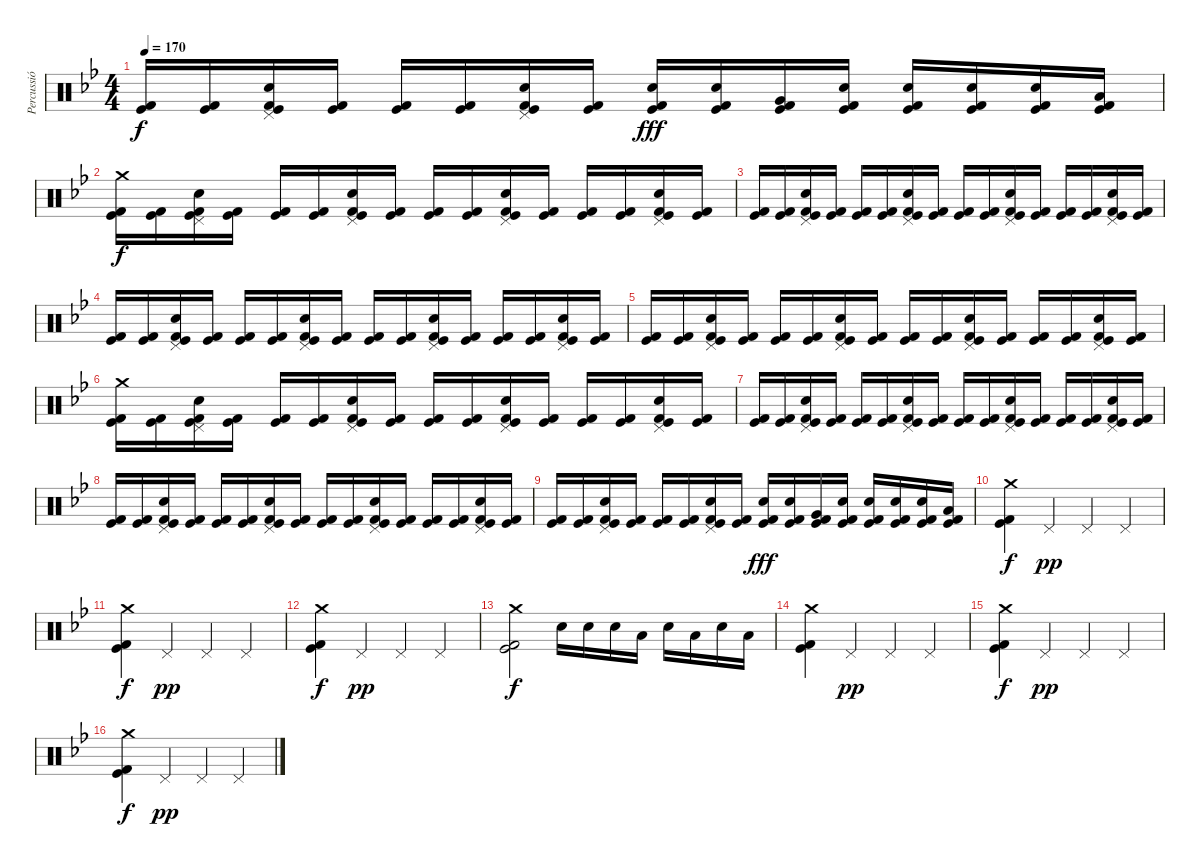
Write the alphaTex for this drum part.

\track ("Percussió" "Percussió") {instrument percussion}
\staff {score}
\articulation defaults
\ts (4 4)
\tempo 170
\clef neutral
\ks gminor
("Kick (hit)" "Kick (hit) 2").16{dy f} ("Kick (hit)" "Kick (hit) 2").16 ("Pedal Hi-Hat (hit)" "Electric Snare (hit)" "Kick (hit)" "Kick (hit) 2").16 ("Kick (hit)" "Kick (hit) 2").16 ("Kick (hit)" "Kick (hit) 2").16 ("Kick (hit)" "Kick (hit) 2").16 ("Pedal Hi-Hat (hit)" "Electric Snare (hit)" "Kick (hit)" "Kick (hit) 2").16 ("Kick (hit)" "Kick (hit) 2").16 ("Electric Snare (hit)" "Kick (hit)" "Kick (hit) 2").16{dy fff} ("Electric Snare (hit)" "Kick (hit)" "Kick (hit) 2").16 ("Very Low Tom (hit)" "Kick (hit)" "Kick (hit) 2").16 ("Electric Snare (hit)" "Kick (hit)" "Kick (hit) 2").16 ("Electric Snare (hit)" "Kick (hit)" "Kick (hit) 2").16 ("Electric Snare (hit)" "Kick (hit)" "Kick (hit) 2").16 ("Electric Snare (hit)" "Kick (hit)" "Kick (hit) 2").16 ("Low Floor Tom (hit)" "Kick (hit)" "Kick (hit) 2").16 |
("Crash medium (hit)" "Kick (hit)" "Kick (hit) 2").16{dy f} ("Kick (hit)" "Kick (hit) 2").16 ("Pedal Hi-Hat (hit)" "Electric Snare (hit)" "Kick (hit)" "Kick (hit) 2").16 ("Kick (hit)" "Kick (hit) 2").16 ("Kick (hit)" "Kick (hit) 2").16 ("Kick (hit)" "Kick (hit) 2").16 ("Pedal Hi-Hat (hit)" "Electric Snare (hit)" "Kick (hit)" "Kick (hit) 2").16 ("Kick (hit)" "Kick (hit) 2").16 ("Kick (hit)" "Kick (hit) 2").16 ("Kick (hit)" "Kick (hit) 2").16 ("Pedal Hi-Hat (hit)" "Electric Snare (hit)" "Kick (hit)" "Kick (hit) 2").16 ("Kick (hit)" "Kick (hit) 2").16 ("Kick (hit)" "Kick (hit) 2").16 ("Kick (hit)" "Kick (hit) 2").16 ("Pedal Hi-Hat (hit)" "Electric Snare (hit)" "Kick (hit)" "Kick (hit) 2").16 ("Kick (hit)" "Kick (hit) 2").16 |
("Kick (hit)" "Kick (hit) 2").16 ("Kick (hit)" "Kick (hit) 2").16 ("Pedal Hi-Hat (hit)" "Electric Snare (hit)" "Kick (hit)" "Kick (hit) 2").16 ("Kick (hit)" "Kick (hit) 2").16 ("Kick (hit)" "Kick (hit) 2").16 ("Kick (hit)" "Kick (hit) 2").16 ("Pedal Hi-Hat (hit)" "Electric Snare (hit)" "Kick (hit)" "Kick (hit) 2").16 ("Kick (hit)" "Kick (hit) 2").16 ("Kick (hit)" "Kick (hit) 2").16 ("Kick (hit)" "Kick (hit) 2").16 ("Pedal Hi-Hat (hit)" "Electric Snare (hit)" "Kick (hit)" "Kick (hit) 2").16 ("Kick (hit)" "Kick (hit) 2").16 ("Kick (hit)" "Kick (hit) 2").16 ("Kick (hit)" "Kick (hit) 2").16 ("Pedal Hi-Hat (hit)" "Electric Snare (hit)" "Kick (hit)" "Kick (hit) 2").16 ("Kick (hit)" "Kick (hit) 2").16 |
("Kick (hit)" "Kick (hit) 2").16 ("Kick (hit)" "Kick (hit) 2").16 ("Pedal Hi-Hat (hit)" "Electric Snare (hit)" "Kick (hit)" "Kick (hit) 2").16 ("Kick (hit)" "Kick (hit) 2").16 ("Kick (hit)" "Kick (hit) 2").16 ("Kick (hit)" "Kick (hit) 2").16 ("Pedal Hi-Hat (hit)" "Electric Snare (hit)" "Kick (hit)" "Kick (hit) 2").16 ("Kick (hit)" "Kick (hit) 2").16 ("Kick (hit)" "Kick (hit) 2").16 ("Kick (hit)" "Kick (hit) 2").16 ("Pedal Hi-Hat (hit)" "Electric Snare (hit)" "Kick (hit)" "Kick (hit) 2").16 ("Kick (hit)" "Kick (hit) 2").16 ("Kick (hit)" "Kick (hit) 2").16 ("Kick (hit)" "Kick (hit) 2").16 ("Pedal Hi-Hat (hit)" "Electric Snare (hit)" "Kick (hit)" "Kick (hit) 2").16 ("Kick (hit)" "Kick (hit) 2").16 |
("Kick (hit)" "Kick (hit) 2").16 ("Kick (hit)" "Kick (hit) 2").16 ("Pedal Hi-Hat (hit)" "Electric Snare (hit)" "Kick (hit)" "Kick (hit) 2").16 ("Kick (hit)" "Kick (hit) 2").16 ("Kick (hit)" "Kick (hit) 2").16 ("Kick (hit)" "Kick (hit) 2").16 ("Pedal Hi-Hat (hit)" "Electric Snare (hit)" "Kick (hit)" "Kick (hit) 2").16 ("Kick (hit)" "Kick (hit) 2").16 ("Kick (hit)" "Kick (hit) 2").16 ("Kick (hit)" "Kick (hit) 2").16 ("Pedal Hi-Hat (hit)" "Electric Snare (hit)" "Kick (hit)" "Kick (hit) 2").16 ("Kick (hit)" "Kick (hit) 2").16 ("Kick (hit)" "Kick (hit) 2").16 ("Kick (hit)" "Kick (hit) 2").16 ("Pedal Hi-Hat (hit)" "Electric Snare (hit)" "Kick (hit)" "Kick (hit) 2").16 ("Kick (hit)" "Kick (hit) 2").16 |
("Crash medium (hit)" "Kick (hit)" "Kick (hit) 2").16 ("Kick (hit)" "Kick (hit) 2").16 ("Pedal Hi-Hat (hit)" "Electric Snare (hit)" "Kick (hit)" "Kick (hit) 2").16 ("Kick (hit)" "Kick (hit) 2").16 ("Kick (hit)" "Kick (hit) 2").16 ("Kick (hit)" "Kick (hit) 2").16 ("Pedal Hi-Hat (hit)" "Electric Snare (hit)" "Kick (hit)" "Kick (hit) 2").16 ("Kick (hit)" "Kick (hit) 2").16 ("Kick (hit)" "Kick (hit) 2").16 ("Kick (hit)" "Kick (hit) 2").16 ("Pedal Hi-Hat (hit)" "Electric Snare (hit)" "Kick (hit)" "Kick (hit) 2").16 ("Kick (hit)" "Kick (hit) 2").16 ("Kick (hit)" "Kick (hit) 2").16 ("Kick (hit)" "Kick (hit) 2").16 ("Pedal Hi-Hat (hit)" "Electric Snare (hit)" "Kick (hit)" "Kick (hit) 2").16 ("Kick (hit)" "Kick (hit) 2").16 |
("Kick (hit)" "Kick (hit) 2").16 ("Kick (hit)" "Kick (hit) 2").16 ("Pedal Hi-Hat (hit)" "Electric Snare (hit)" "Kick (hit)" "Kick (hit) 2").16 ("Kick (hit)" "Kick (hit) 2").16 ("Kick (hit)" "Kick (hit) 2").16 ("Kick (hit)" "Kick (hit) 2").16 ("Pedal Hi-Hat (hit)" "Electric Snare (hit)" "Kick (hit)" "Kick (hit) 2").16 ("Kick (hit)" "Kick (hit) 2").16 ("Kick (hit)" "Kick (hit) 2").16 ("Kick (hit)" "Kick (hit) 2").16 ("Pedal Hi-Hat (hit)" "Electric Snare (hit)" "Kick (hit)" "Kick (hit) 2").16 ("Kick (hit)" "Kick (hit) 2").16 ("Kick (hit)" "Kick (hit) 2").16 ("Kick (hit)" "Kick (hit) 2").16 ("Pedal Hi-Hat (hit)" "Electric Snare (hit)" "Kick (hit)" "Kick (hit) 2").16 ("Kick (hit)" "Kick (hit) 2").16 |
("Kick (hit)" "Kick (hit) 2").16 ("Kick (hit)" "Kick (hit) 2").16 ("Pedal Hi-Hat (hit)" "Electric Snare (hit)" "Kick (hit)" "Kick (hit) 2").16 ("Kick (hit)" "Kick (hit) 2").16 ("Kick (hit)" "Kick (hit) 2").16 ("Kick (hit)" "Kick (hit) 2").16 ("Pedal Hi-Hat (hit)" "Electric Snare (hit)" "Kick (hit)" "Kick (hit) 2").16 ("Kick (hit)" "Kick (hit) 2").16 ("Kick (hit)" "Kick (hit) 2").16 ("Kick (hit)" "Kick (hit) 2").16 ("Pedal Hi-Hat (hit)" "Electric Snare (hit)" "Kick (hit)" "Kick (hit) 2").16 ("Kick (hit)" "Kick (hit) 2").16 ("Kick (hit)" "Kick (hit) 2").16 ("Kick (hit)" "Kick (hit) 2").16 ("Pedal Hi-Hat (hit)" "Electric Snare (hit)" "Kick (hit)" "Kick (hit) 2").16 ("Kick (hit)" "Kick (hit) 2").16 |
("Kick (hit)" "Kick (hit) 2").16 ("Kick (hit)" "Kick (hit) 2").16 ("Pedal Hi-Hat (hit)" "Electric Snare (hit)" "Kick (hit)" "Kick (hit) 2").16 ("Kick (hit)" "Kick (hit) 2").16 ("Kick (hit)" "Kick (hit) 2").16 ("Kick (hit)" "Kick (hit) 2").16 ("Pedal Hi-Hat (hit)" "Electric Snare (hit)" "Kick (hit)" "Kick (hit) 2").16 ("Kick (hit)" "Kick (hit) 2").16 ("Electric Snare (hit)" "Kick (hit)" "Kick (hit) 2").16{dy fff} ("Electric Snare (hit)" "Kick (hit)" "Kick (hit) 2").16 ("Very Low Tom (hit)" "Kick (hit)" "Kick (hit) 2").16 ("Electric Snare (hit)" "Kick (hit)" "Kick (hit) 2").16 ("Electric Snare (hit)" "Kick (hit)" "Kick (hit) 2").16 ("Electric Snare (hit)" "Kick (hit)" "Kick (hit) 2").16 ("Electric Snare (hit)" "Kick (hit)" "Kick (hit) 2").16 ("Low Floor Tom (hit)" "Kick (hit)" "Kick (hit) 2").16 |
("Crash medium (hit)" "Kick (hit)" "Kick (hit) 2").4{dy f} "Pedal Hi-Hat (hit)".4{dy pp} "Pedal Hi-Hat (hit)".4 "Pedal Hi-Hat (hit)".4 |
("Crash medium (hit)" "Kick (hit)" "Kick (hit) 2").4{dy f} "Pedal Hi-Hat (hit)".4{dy pp} "Pedal Hi-Hat (hit)".4 "Pedal Hi-Hat (hit)".4 |
("Crash medium (hit)" "Kick (hit)" "Kick (hit) 2").4{dy f} "Pedal Hi-Hat (hit)".4{dy pp} "Pedal Hi-Hat (hit)".4 "Pedal Hi-Hat (hit)".4 |
("Crash medium (hit)" "Kick (hit)" "Kick (hit) 2").2{dy f} "Electric Snare (hit)".16 "Electric Snare (hit)".16 "Electric Snare (hit)".16 "Low Tom (hit)".16 "Electric Snare (hit)".16 "Low Tom (hit)".16 "Electric Snare (hit)".16 "Low Floor Tom (hit)".16 |
("Crash medium (hit)" "Kick (hit)" "Kick (hit) 2").4 "Pedal Hi-Hat (hit)".4{dy pp} "Pedal Hi-Hat (hit)".4 "Pedal Hi-Hat (hit)".4 |
("Crash medium (hit)" "Kick (hit)" "Kick (hit) 2").4{dy f} "Pedal Hi-Hat (hit)".4{dy pp} "Pedal Hi-Hat (hit)".4 "Pedal Hi-Hat (hit)".4 |
("Crash medium (hit)" "Kick (hit)" "Kick (hit) 2").4{dy f} "Pedal Hi-Hat (hit)".4{dy pp} "Pedal Hi-Hat (hit)".4 "Pedal Hi-Hat (hit)".4
